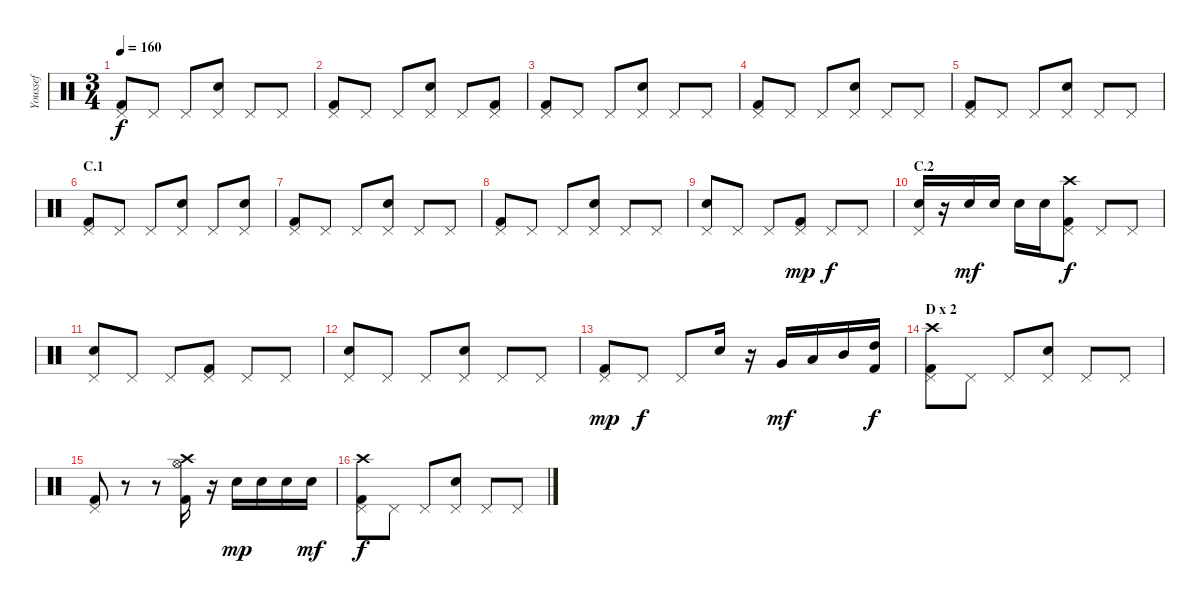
\track ("Youssef" "Youssef") {instrument percussion}
\staff {score}
\articulation defaults
\ts (3 4)
\tempo 160
\clef neutral
\ks c
("Kick (hit) 2" "Pedal Hi-Hat (hit)").8{dy f} "Pedal Hi-Hat (hit)".8 "Pedal Hi-Hat (hit)".8 ("Electric Snare (hit)" "Pedal Hi-Hat (hit)").8 "Pedal Hi-Hat (hit)".8 "Pedal Hi-Hat (hit)".8 |
("Kick (hit) 2" "Pedal Hi-Hat (hit)").8 "Pedal Hi-Hat (hit)".8 "Pedal Hi-Hat (hit)".8 ("Electric Snare (hit)" "Pedal Hi-Hat (hit)").8 "Pedal Hi-Hat (hit)".8 ("Kick (hit) 2" "Pedal Hi-Hat (hit)").8 |
("Kick (hit) 2" "Pedal Hi-Hat (hit)").8 "Pedal Hi-Hat (hit)".8 "Pedal Hi-Hat (hit)".8 ("Electric Snare (hit)" "Pedal Hi-Hat (hit)").8 "Pedal Hi-Hat (hit)".8 "Pedal Hi-Hat (hit)".8 |
("Kick (hit) 2" "Pedal Hi-Hat (hit)").8 "Pedal Hi-Hat (hit)".8 "Pedal Hi-Hat (hit)".8 ("Electric Snare (hit)" "Pedal Hi-Hat (hit)").8 "Pedal Hi-Hat (hit)".8 "Pedal Hi-Hat (hit)".8 |
("Kick (hit) 2" "Pedal Hi-Hat (hit)").8 "Pedal Hi-Hat (hit)".8 "Pedal Hi-Hat (hit)".8 ("Electric Snare (hit)" "Pedal Hi-Hat (hit)").8 "Pedal Hi-Hat (hit)".8 "Pedal Hi-Hat (hit)".8 |
\section ("" "C.1")
("Kick (hit) 2" "Pedal Hi-Hat (hit)").8 "Pedal Hi-Hat (hit)".8 "Pedal Hi-Hat (hit)".8 ("Electric Snare (hit)" "Pedal Hi-Hat (hit)").8 "Pedal Hi-Hat (hit)".8 ("Electric Snare (hit)" "Pedal Hi-Hat (hit)").8 |
("Kick (hit) 2" "Pedal Hi-Hat (hit)").8 "Pedal Hi-Hat (hit)".8 "Pedal Hi-Hat (hit)".8 ("Electric Snare (hit)" "Pedal Hi-Hat (hit)").8 "Pedal Hi-Hat (hit)".8 "Pedal Hi-Hat (hit)".8 |
("Kick (hit) 2" "Pedal Hi-Hat (hit)").8 "Pedal Hi-Hat (hit)".8 "Pedal Hi-Hat (hit)".8 ("Electric Snare (hit)" "Pedal Hi-Hat (hit)").8 "Pedal Hi-Hat (hit)".8 "Pedal Hi-Hat (hit)".8 |
("Electric Snare (hit)" "Pedal Hi-Hat (hit)").8 "Pedal Hi-Hat (hit)".8 "Pedal Hi-Hat (hit)".8 ("Kick (hit) 2" "Pedal Hi-Hat (hit)").8{dy mp} "Pedal Hi-Hat (hit)".8{dy f} "Pedal Hi-Hat (hit)".8 |
\section ("" "C.2")
("Electric Snare (hit)" "Pedal Hi-Hat (hit)").16 r.16 "Electric Snare (hit)".16{dy mf} "Electric Snare (hit)".16 "Electric Snare (hit)".16 "Electric Snare (hit)".16 ("Kick (hit) 2" "Crash high (hit)" "Pedal Hi-Hat (hit)").8{dy f} "Pedal Hi-Hat (hit)".8 "Pedal Hi-Hat (hit)".8 |
("Electric Snare (hit)" "Pedal Hi-Hat (hit)").8 "Pedal Hi-Hat (hit)".8 "Pedal Hi-Hat (hit)".8 ("Kick (hit) 2" "Pedal Hi-Hat (hit)").8 "Pedal Hi-Hat (hit)".8 "Pedal Hi-Hat (hit)".8 |
("Electric Snare (hit)" "Pedal Hi-Hat (hit)").8 "Pedal Hi-Hat (hit)".8 "Pedal Hi-Hat (hit)".8 ("Electric Snare (hit)" "Pedal Hi-Hat (hit)").8 "Pedal Hi-Hat (hit)".8 "Pedal Hi-Hat (hit)".8 |
("Kick (hit) 2" "Pedal Hi-Hat (hit)").8{dy mp} "Pedal Hi-Hat (hit)".8{dy f} "Pedal Hi-Hat (hit)".8 "Electric Snare (hit)".16 r.16 "Very Low Tom (hit)".16{dy mf} "Low Tom (hit)".16 "Mid Tom (hit)".16 ("Kick (hit) 2" "High Tom (hit)").16{dy f} |
\section ("" "D x 2")
("Kick (hit) 2" "Crash high (hit)" "Pedal Hi-Hat (hit)").8 "Pedal Hi-Hat (hit)".8 "Pedal Hi-Hat (hit)".8 ("Electric Snare (hit)" "Pedal Hi-Hat (hit)").8 "Pedal Hi-Hat (hit)".8 "Pedal Hi-Hat (hit)".8 |
("Kick (hit) 2" "Pedal Hi-Hat (hit)").8 r.8 r.8 ("Kick (hit) 2" "Hi-Hat (open)" "Crash high (hit)").16 r.16 "Electric Snare (hit)".16{dy mp} "Electric Snare (hit)".16 "Electric Snare (hit)".16 "Electric Snare (hit)".16{dy mf} |
("Kick (hit) 2" "Crash high (hit)" "Pedal Hi-Hat (hit)").8{dy f} "Pedal Hi-Hat (hit)".8 "Pedal Hi-Hat (hit)".8 ("Electric Snare (hit)" "Pedal Hi-Hat (hit)").8 "Pedal Hi-Hat (hit)".8 "Pedal Hi-Hat (hit)".8
